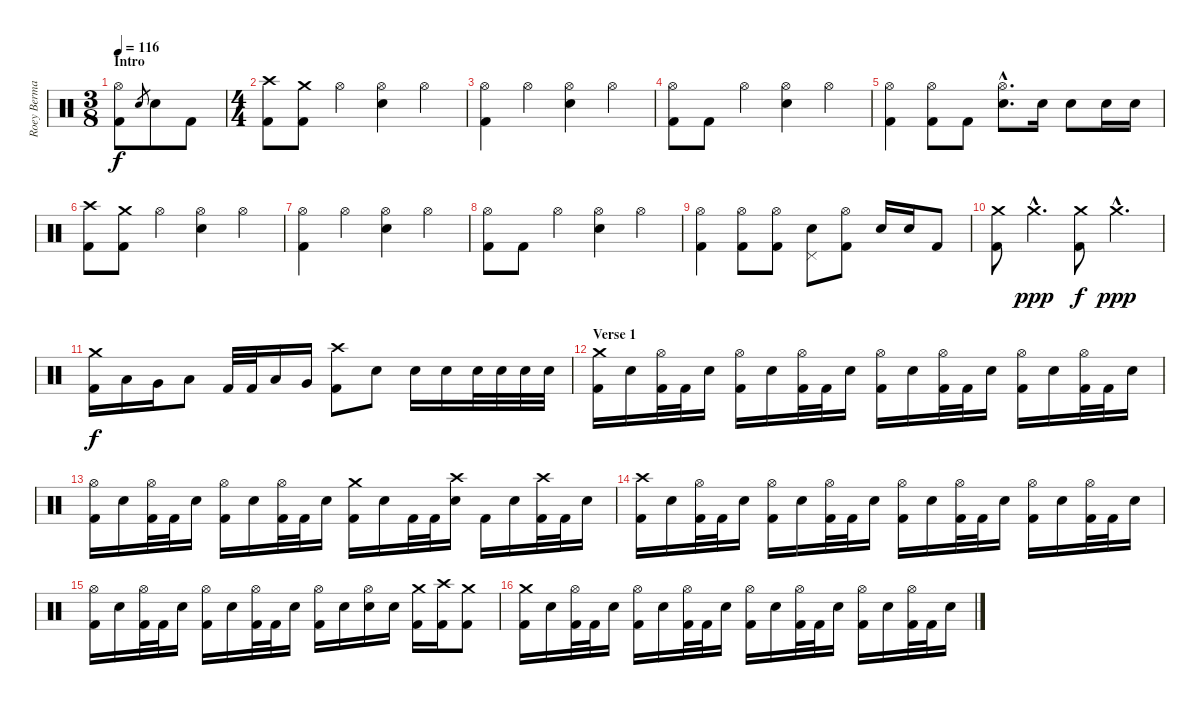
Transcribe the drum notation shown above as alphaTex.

\track ("Roey Berman" "Roey Berma") {instrument percussion}
\staff {score}
\articulation defaults
\ts (3 8)
\section ("" "Intro")
\tempo 116
\clef neutral
\ks c
("Hi-Hat (open)" "Kick (hit) 2").8{dy f} "Electric Snare (hit)".8{gr} "Electric Snare (hit)".8 "Kick (hit) 2".8 |
\ts (4 4)
("Crash high (hit)" "Kick (hit) 2").8 ("Crash medium (hit)" "Kick (hit) 2").8 "Hi-Hat (open)".4 ("Hi-Hat (open)" "Electric Snare (hit)").4 "Hi-Hat (open)".4 |
("Hi-Hat (open)" "Kick (hit) 2").4 "Hi-Hat (open)".4 ("Hi-Hat (open)" "Electric Snare (hit)").4 "Hi-Hat (open)".4 |
("Hi-Hat (open)" "Kick (hit) 2").8 "Kick (hit) 2".8 "Hi-Hat (open)".4 ("Hi-Hat (open)" "Electric Snare (hit)").4 "Hi-Hat (open)".4 |
("Hi-Hat (open)" "Kick (hit) 2").4 ("Hi-Hat (open)" "Kick (hit) 2").8 "Kick (hit) 2".8 ("Hi-Hat (open)"{hac} "Electric Snare (hit)"{hac}).8{d} "Electric Snare (hit)".16 "Electric Snare (hit)".8 "Electric Snare (hit)".16 "Electric Snare (hit)".16 |
("Crash high (hit)" "Kick (hit) 2").8 ("Crash medium (hit)" "Kick (hit) 2").8 "Hi-Hat (open)".4 ("Hi-Hat (open)" "Electric Snare (hit)").4 "Hi-Hat (open)".4 |
("Hi-Hat (open)" "Kick (hit) 2").4 "Hi-Hat (open)".4 ("Hi-Hat (open)" "Electric Snare (hit)").4 "Hi-Hat (open)".4 |
("Hi-Hat (open)" "Kick (hit) 2").8 "Kick (hit) 2".8 "Hi-Hat (open)".4 ("Hi-Hat (open)" "Electric Snare (hit)").4 "Hi-Hat (open)".4 |
("Hi-Hat (open)" "Kick (hit) 2").4 ("Hi-Hat (open)" "Kick (hit) 2").8 ("Hi-Hat (open)" "Kick (hit) 2").8 ("Pedal Hi-Hat (hit)" "Electric Snare (hit)").8 ("Hi-Hat (open)" "Kick (hit) 2").8 "Electric Snare (hit)".16 "Electric Snare (hit)".16 "Kick (hit) 2".8 |
("Crash medium (hit)" "Kick (hit) 2").8 "Crash medium (hit)"{hac}.4{d dy ppp} ("Crash medium (hit)" "Kick (hit) 2").8{dy f} "Crash medium (hit)"{hac}.4{d dy ppp} |
("Crash medium (hit)" "Kick (hit) 2").16{dy f} "Low Tom (hit)".16 "Very Low Tom (hit)".16 "Low Tom (hit)".8 "Kick (hit) 2".32 "Kick (hit) 2".32 "Low Tom (hit)".16 "Very Low Tom (hit)".16 ("Crash high (hit)" "Kick (hit) 2").8 "Electric Snare (hit)".8 "Electric Snare (hit)".16 "Electric Snare (hit)".16 "Electric Snare (hit)".32 "Electric Snare (hit)".32 "Electric Snare (hit)".32 "Electric Snare (hit)".32 |
\section ("" "Verse 1")
("Crash medium (hit)" "Kick (hit) 2").16 "Electric Snare (hit)".16 ("Hi-Hat (open)" "Kick (hit) 2").32 "Kick (hit) 2".32 "Electric Snare (hit)".16 ("Hi-Hat (open)" "Kick (hit) 2").16 "Electric Snare (hit)".16 ("Hi-Hat (open)" "Kick (hit) 2").32 "Kick (hit) 2".32 "Electric Snare (hit)".16 ("Hi-Hat (open)" "Kick (hit) 2").16 "Electric Snare (hit)".16 ("Hi-Hat (open)" "Kick (hit) 2").32 "Kick (hit) 2".32 "Electric Snare (hit)".16 ("Hi-Hat (open)" "Kick (hit) 2").16 "Electric Snare (hit)".16 ("Hi-Hat (open)" "Kick (hit) 2").32 "Kick (hit) 2".32 "Electric Snare (hit)".16 |
("Hi-Hat (open)" "Kick (hit) 2").16 "Electric Snare (hit)".16 ("Hi-Hat (open)" "Kick (hit) 2").32 "Kick (hit) 2".32 "Electric Snare (hit)".16 ("Hi-Hat (open)" "Kick (hit) 2").16 "Electric Snare (hit)".16 ("Hi-Hat (open)" "Kick (hit) 2").32 "Kick (hit) 2".32 "Electric Snare (hit)".16 ("Crash medium (hit)" "Kick (hit) 2").16 "Electric Snare (hit)".16 "Kick (hit) 2".32 "Kick (hit) 2".32 ("Crash high (hit)" "Electric Snare (hit)").16 "Kick (hit) 2".16 "Electric Snare (hit)".16 ("Crash high (hit)" "Kick (hit) 2").32 "Kick (hit) 2".32 "Electric Snare (hit)".16 |
("Crash high (hit)" "Kick (hit) 2").16 "Electric Snare (hit)".16 ("Hi-Hat (open)" "Kick (hit) 2").32 "Kick (hit) 2".32 "Electric Snare (hit)".16 ("Hi-Hat (open)" "Kick (hit) 2").16 "Electric Snare (hit)".16 ("Hi-Hat (open)" "Kick (hit) 2").32 "Kick (hit) 2".32 "Electric Snare (hit)".16 ("Hi-Hat (open)" "Kick (hit) 2").16 "Electric Snare (hit)".16 ("Hi-Hat (open)" "Kick (hit) 2").32 "Kick (hit) 2".32 "Electric Snare (hit)".16 ("Hi-Hat (open)" "Kick (hit) 2").16 "Electric Snare (hit)".16 ("Hi-Hat (open)" "Kick (hit) 2").32 "Kick (hit) 2".32 "Electric Snare (hit)".16 |
("Hi-Hat (open)" "Kick (hit) 2").16 "Electric Snare (hit)".16 ("Hi-Hat (open)" "Kick (hit) 2").32 "Kick (hit) 2".32 "Electric Snare (hit)".16 ("Hi-Hat (open)" "Kick (hit) 2").16 "Electric Snare (hit)".16 ("Hi-Hat (open)" "Kick (hit) 2").32 "Kick (hit) 2".32 "Electric Snare (hit)".16 ("Hi-Hat (open)" "Kick (hit) 2").16 "Electric Snare (hit)".16 ("Hi-Hat (open)" "Electric Snare (hit)").16 "Electric Snare (hit)".16 ("Crash medium (hit)" "Kick (hit) 2").16 ("Crash high (hit)" "Kick (hit) 2").16 ("Crash medium (hit)" "Kick (hit) 2").8 |
("Crash medium (hit)" "Kick (hit) 2").16 "Electric Snare (hit)".16 ("Hi-Hat (open)" "Kick (hit) 2").32 "Kick (hit) 2".32 "Electric Snare (hit)".16 ("Hi-Hat (open)" "Kick (hit) 2").16 "Electric Snare (hit)".16 ("Hi-Hat (open)" "Kick (hit) 2").32 "Kick (hit) 2".32 "Electric Snare (hit)".16 ("Hi-Hat (open)" "Kick (hit) 2").16 "Electric Snare (hit)".16 ("Hi-Hat (open)" "Kick (hit) 2").32 "Kick (hit) 2".32 "Electric Snare (hit)".16 ("Hi-Hat (open)" "Kick (hit) 2").16 "Electric Snare (hit)".16 ("Hi-Hat (open)" "Kick (hit) 2").32 "Kick (hit) 2".32 "Electric Snare (hit)".16
